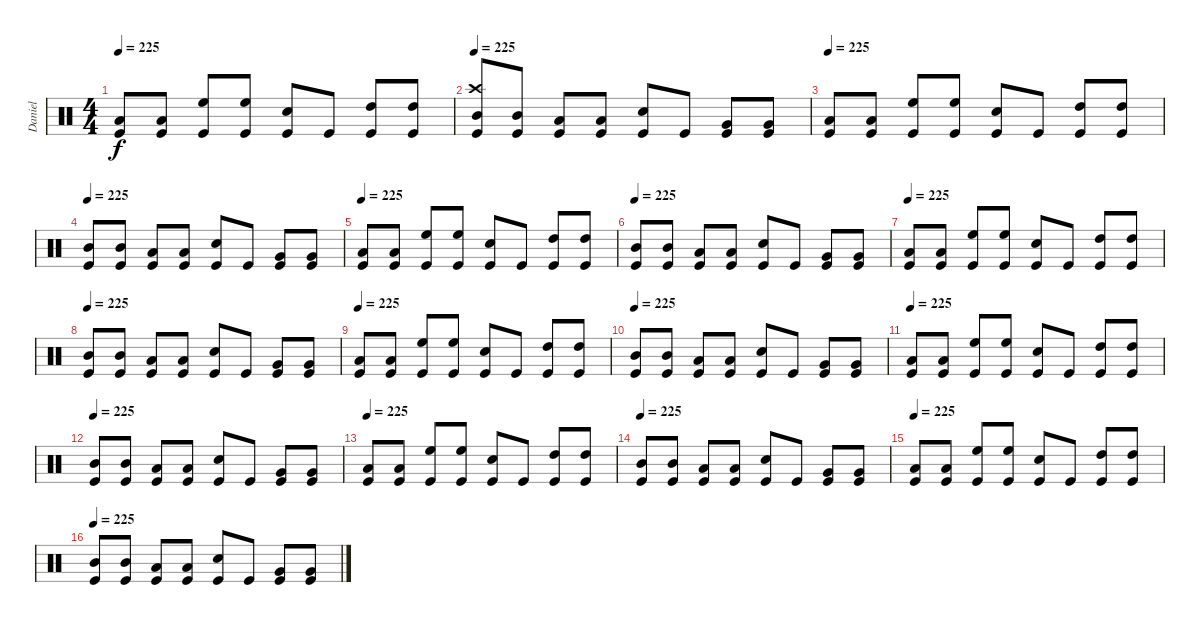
\track ("Daniel" "Daniel") {instrument percussion}
\staff {score}
\articulation defaults
\ts (4 4)
\tempo 225
\clef neutral
\ks c
("Low Floor Tom (hit)" "Kick (hit)").8{dy f} ("Low Floor Tom (hit)" "Kick (hit)").8 ("High Floor Tom (hit)" "Kick (hit)").8 ("High Floor Tom (hit)" "Kick (hit)").8 ("Snare (hit) 2" "Kick (hit)").8 "Kick (hit)".8 ("High Tom (hit)" "Kick (hit)").8 ("High Tom (hit)" "Kick (hit)").8 |
\tempo 225
("Crash high (hit)" "Mid Tom (hit)" "Kick (hit)").8 ("Mid Tom (hit)" "Kick (hit)").8 ("Low Tom (hit)" "Kick (hit)").8 ("Low Tom (hit)" "Kick (hit)").8 ("Snare (hit) 2" "Kick (hit)").8 "Kick (hit)".8 ("Very Low Tom (hit)" "Kick (hit)").8 ("Very Low Tom (hit)" "Kick (hit)").8 |
\tempo 225
("Low Floor Tom (hit)" "Kick (hit)").8 ("Low Floor Tom (hit)" "Kick (hit)").8 ("High Floor Tom (hit)" "Kick (hit)").8 ("High Floor Tom (hit)" "Kick (hit)").8 ("Snare (hit) 2" "Kick (hit)").8 "Kick (hit)".8 ("High Tom (hit)" "Kick (hit)").8 ("High Tom (hit)" "Kick (hit)").8 |
\tempo 225
("Mid Tom (hit)" "Kick (hit)").8 ("Mid Tom (hit)" "Kick (hit)").8 ("Low Tom (hit)" "Kick (hit)").8 ("Low Tom (hit)" "Kick (hit)").8 ("Snare (hit) 2" "Kick (hit)").8 "Kick (hit)".8 ("Very Low Tom (hit)" "Kick (hit)").8 ("Very Low Tom (hit)" "Kick (hit)").8 |
\tempo 225
("Low Floor Tom (hit)" "Kick (hit)").8 ("Low Floor Tom (hit)" "Kick (hit)").8 ("High Floor Tom (hit)" "Kick (hit)").8 ("High Floor Tom (hit)" "Kick (hit)").8 ("Snare (hit) 2" "Kick (hit)").8 "Kick (hit)".8 ("High Tom (hit)" "Kick (hit)").8 ("High Tom (hit)" "Kick (hit)").8 |
\tempo 225
("Mid Tom (hit)" "Kick (hit)").8 ("Mid Tom (hit)" "Kick (hit)").8 ("Low Tom (hit)" "Kick (hit)").8 ("Low Tom (hit)" "Kick (hit)").8 ("Snare (hit) 2" "Kick (hit)").8 "Kick (hit)".8 ("Very Low Tom (hit)" "Kick (hit)").8 ("Very Low Tom (hit)" "Kick (hit)").8 |
\tempo 225
("Low Floor Tom (hit)" "Kick (hit)").8 ("Low Floor Tom (hit)" "Kick (hit)").8 ("High Floor Tom (hit)" "Kick (hit)").8 ("High Floor Tom (hit)" "Kick (hit)").8 ("Snare (hit) 2" "Kick (hit)").8 "Kick (hit)".8 ("High Tom (hit)" "Kick (hit)").8 ("High Tom (hit)" "Kick (hit)").8 |
\tempo 225
("Mid Tom (hit)" "Kick (hit)").8 ("Mid Tom (hit)" "Kick (hit)").8 ("Low Tom (hit)" "Kick (hit)").8 ("Low Tom (hit)" "Kick (hit)").8 ("Snare (hit) 2" "Kick (hit)").8 "Kick (hit)".8 ("Very Low Tom (hit)" "Kick (hit)").8 ("Very Low Tom (hit)" "Kick (hit)").8 |
\tempo 225
("Low Floor Tom (hit)" "Kick (hit)").8 ("Low Floor Tom (hit)" "Kick (hit)").8 ("High Floor Tom (hit)" "Kick (hit)").8 ("High Floor Tom (hit)" "Kick (hit)").8 ("Snare (hit) 2" "Kick (hit)").8 "Kick (hit)".8 ("High Tom (hit)" "Kick (hit)").8 ("High Tom (hit)" "Kick (hit)").8 |
\tempo 225
("Mid Tom (hit)" "Kick (hit)").8 ("Mid Tom (hit)" "Kick (hit)").8 ("Low Tom (hit)" "Kick (hit)").8 ("Low Tom (hit)" "Kick (hit)").8 ("Snare (hit) 2" "Kick (hit)").8 "Kick (hit)".8 ("Very Low Tom (hit)" "Kick (hit)").8 ("Very Low Tom (hit)" "Kick (hit)").8 |
\tempo 225
("Low Floor Tom (hit)" "Kick (hit)").8 ("Low Floor Tom (hit)" "Kick (hit)").8 ("High Floor Tom (hit)" "Kick (hit)").8 ("High Floor Tom (hit)" "Kick (hit)").8 ("Snare (hit) 2" "Kick (hit)").8 "Kick (hit)".8 ("High Tom (hit)" "Kick (hit)").8 ("High Tom (hit)" "Kick (hit)").8 |
\tempo 225
("Mid Tom (hit)" "Kick (hit)").8 ("Mid Tom (hit)" "Kick (hit)").8 ("Low Tom (hit)" "Kick (hit)").8 ("Low Tom (hit)" "Kick (hit)").8 ("Snare (hit) 2" "Kick (hit)").8 "Kick (hit)".8 ("Very Low Tom (hit)" "Kick (hit)").8 ("Very Low Tom (hit)" "Kick (hit)").8 |
\tempo 225
("Low Floor Tom (hit)" "Kick (hit)").8 ("Low Floor Tom (hit)" "Kick (hit)").8 ("High Floor Tom (hit)" "Kick (hit)").8 ("High Floor Tom (hit)" "Kick (hit)").8 ("Snare (hit) 2" "Kick (hit)").8 "Kick (hit)".8 ("High Tom (hit)" "Kick (hit)").8 ("High Tom (hit)" "Kick (hit)").8 |
\tempo 225
("Mid Tom (hit)" "Kick (hit)").8 ("Mid Tom (hit)" "Kick (hit)").8 ("Low Tom (hit)" "Kick (hit)").8 ("Low Tom (hit)" "Kick (hit)").8 ("Snare (hit) 2" "Kick (hit)").8 "Kick (hit)".8 ("Very Low Tom (hit)" "Kick (hit)").8 ("Very Low Tom (hit)" "Kick (hit)").8 |
\tempo 225
("Low Floor Tom (hit)" "Kick (hit)").8 ("Low Floor Tom (hit)" "Kick (hit)").8 ("High Floor Tom (hit)" "Kick (hit)").8 ("High Floor Tom (hit)" "Kick (hit)").8 ("Snare (hit) 2" "Kick (hit)").8 "Kick (hit)".8 ("High Tom (hit)" "Kick (hit)").8 ("High Tom (hit)" "Kick (hit)").8 |
\tempo 225
("Mid Tom (hit)" "Kick (hit)").8 ("Mid Tom (hit)" "Kick (hit)").8 ("Low Tom (hit)" "Kick (hit)").8 ("Low Tom (hit)" "Kick (hit)").8 ("Snare (hit) 2" "Kick (hit)").8 "Kick (hit)".8 ("Very Low Tom (hit)" "Kick (hit)").8 ("Very Low Tom (hit)" "Kick (hit)").8
